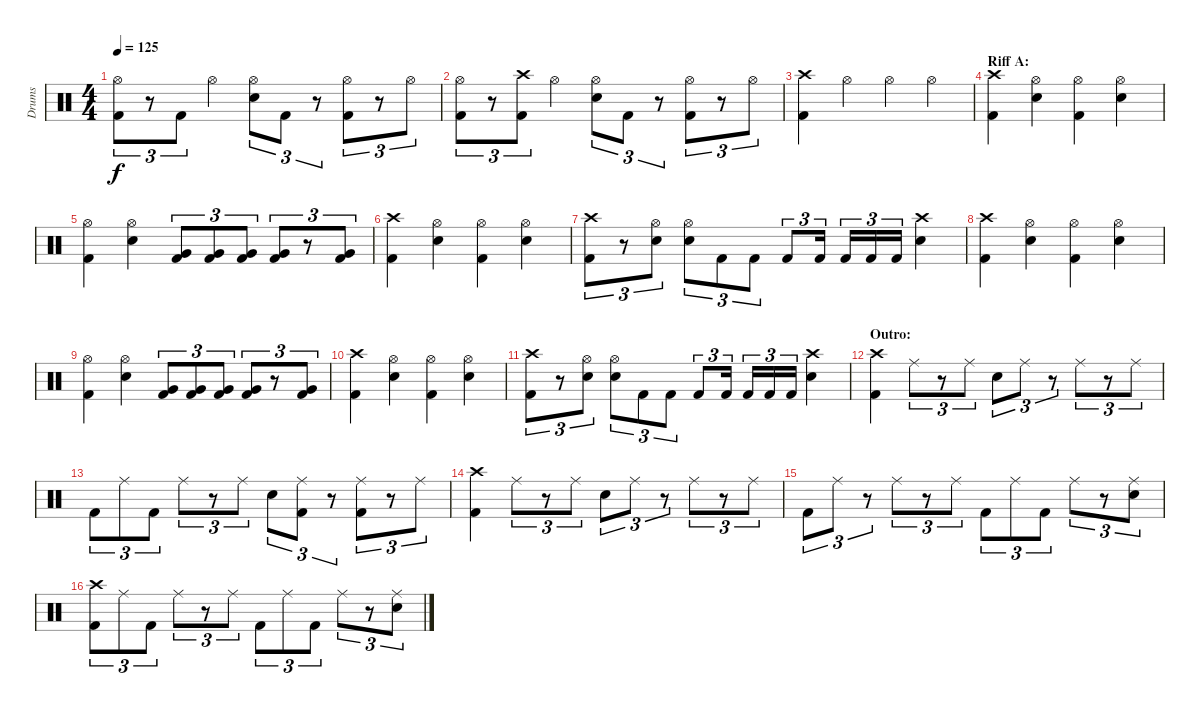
\track ("Drums" "Drums") {instrument percussion}
\staff {score}
\articulation defaults
\ts (4 4)
\tempo 125
\clef neutral
\ks c
("Hi-Hat (open)" "Kick (hit) 2").8{tu (3 2) dy f} r.8{tu (3 2)} "Kick (hit) 2".8{tu (3 2)} "Hi-Hat (open)".4 ("Hi-Hat (open)" "Electric Snare (hit)").8{tu (3 2)} "Kick (hit) 2".8{tu (3 2)} r.8{tu (3 2)} ("Hi-Hat (open)" "Kick (hit) 2").8{tu (3 2)} r.8{tu (3 2)} "Hi-Hat (open)".8{tu (3 2)} |
("Hi-Hat (open)" "Kick (hit) 2").8{tu (3 2)} r.8{tu (3 2)} ("Crash high (hit)" "Kick (hit) 2").8{tu (3 2)} "Hi-Hat (open)".4 ("Hi-Hat (open)" "Electric Snare (hit)").8{tu (3 2)} "Kick (hit) 2".8{tu (3 2)} r.8{tu (3 2)} ("Hi-Hat (open)" "Kick (hit) 2").8{tu (3 2)} r.8{tu (3 2)} "Hi-Hat (open)".8{tu (3 2)} |
("Crash high (hit)" "Kick (hit) 2").4 "Hi-Hat (open)".4 "Hi-Hat (open)".4 "Hi-Hat (open)".4 |
\section ("" "Riff A:")
("Crash high (hit)" "Kick (hit) 2").4 ("Hi-Hat (open)" "Electric Snare (hit)").4 ("Hi-Hat (open)" "Kick (hit) 2").4 ("Hi-Hat (open)" "Electric Snare (hit)").4 |
("Hi-Hat (open)" "Kick (hit) 2").4 ("Hi-Hat (open)" "Electric Snare (hit)").4 ("Very Low Tom (hit)" "Kick (hit) 2").8{tu (3 2)} ("Very Low Tom (hit)" "Kick (hit) 2").8{tu (3 2)} ("Very Low Tom (hit)" "Kick (hit) 2").8{tu (3 2)} ("Very Low Tom (hit)" "Kick (hit) 2").8{tu (3 2)} r.8{tu (3 2)} ("Very Low Tom (hit)" "Kick (hit) 2").8{tu (3 2)} |
("Crash high (hit)" "Kick (hit) 2").4 ("Hi-Hat (open)" "Electric Snare (hit)").4 ("Hi-Hat (open)" "Kick (hit) 2").4 ("Hi-Hat (open)" "Electric Snare (hit)").4 |
("Crash high (hit)" "Kick (hit) 2").8{tu (3 2)} r.8{tu (3 2)} ("Hi-Hat (open)" "Electric Snare (hit)").8{tu (3 2)} ("Hi-Hat (open)" "Electric Snare (hit)").8{tu (3 2)} "Kick (hit) 2".8{tu (3 2)} "Kick (hit) 2".8{tu (3 2)} "Kick (hit) 2".8{tu (3 2)} "Kick (hit) 2".16{tu (3 2)} "Kick (hit) 2".16{tu (3 2)} "Kick (hit) 2".16{tu (3 2)} "Kick (hit) 2".16{tu (3 2)} ("Crash high (hit)" "Electric Snare (hit)").4 |
("Crash high (hit)" "Kick (hit) 2").4 ("Hi-Hat (open)" "Electric Snare (hit)").4 ("Hi-Hat (open)" "Kick (hit) 2").4 ("Hi-Hat (open)" "Electric Snare (hit)").4 |
("Hi-Hat (open)" "Kick (hit) 2").4 ("Hi-Hat (open)" "Electric Snare (hit)").4 ("Very Low Tom (hit)" "Kick (hit) 2").8{tu (3 2)} ("Very Low Tom (hit)" "Kick (hit) 2").8{tu (3 2)} ("Very Low Tom (hit)" "Kick (hit) 2").8{tu (3 2)} ("Very Low Tom (hit)" "Kick (hit) 2").8{tu (3 2)} r.8{tu (3 2)} ("Very Low Tom (hit)" "Kick (hit) 2").8{tu (3 2)} |
("Crash high (hit)" "Kick (hit) 2").4 ("Hi-Hat (open)" "Electric Snare (hit)").4 ("Hi-Hat (open)" "Kick (hit) 2").4 ("Hi-Hat (open)" "Electric Snare (hit)").4 |
("Crash high (hit)" "Kick (hit) 2").8{tu (3 2)} r.8{tu (3 2)} ("Hi-Hat (open)" "Electric Snare (hit)").8{tu (3 2)} ("Hi-Hat (open)" "Electric Snare (hit)").8{tu (3 2)} "Kick (hit) 2".8{tu (3 2)} "Kick (hit) 2".8{tu (3 2)} "Kick (hit) 2".8{tu (3 2)} "Kick (hit) 2".16{tu (3 2)} "Kick (hit) 2".16{tu (3 2)} "Kick (hit) 2".16{tu (3 2)} "Kick (hit) 2".16{tu (3 2)} ("Crash high (hit)" "Electric Snare (hit)").4 |
\section ("" "Outro:")
("Crash high (hit)" "Kick (hit) 2").4 "Ride (middle)".8{tu (3 2)} r.8{tu (3 2)} "Ride (middle)".8{tu (3 2)} "Electric Snare (hit)".8{tu (3 2)} "Ride (middle)".8{tu (3 2)} r.8{tu (3 2)} "Ride (middle)".8{tu (3 2)} r.8{tu (3 2)} "Ride (middle)".8{tu (3 2)} |
"Kick (hit) 2".8{tu (3 2)} "Ride (middle)".8{tu (3 2)} "Kick (hit) 2".8{tu (3 2)} "Ride (middle)".8{tu (3 2)} r.8{tu (3 2)} "Ride (middle)".8{tu (3 2)} "Electric Snare (hit)".8{tu (3 2)} ("Ride (middle)" "Kick (hit) 2").8{tu (3 2)} r.8{tu (3 2)} ("Ride (middle)" "Kick (hit) 2").8{tu (3 2)} r.8{tu (3 2)} "Ride (middle)".8{tu (3 2)} |
("Crash high (hit)" "Kick (hit) 2").4 "Ride (middle)".8{tu (3 2)} r.8{tu (3 2)} "Ride (middle)".8{tu (3 2)} "Electric Snare (hit)".8{tu (3 2)} "Ride (middle)".8{tu (3 2)} r.8{tu (3 2)} "Ride (middle)".8{tu (3 2)} r.8{tu (3 2)} "Ride (middle)".8{tu (3 2)} |
"Kick (hit) 2".8{tu (3 2)} "Ride (middle)".8{tu (3 2)} r.8{tu (3 2)} "Ride (middle)".8{tu (3 2)} r.8{tu (3 2)} "Ride (middle)".8{tu (3 2)} "Kick (hit) 2".8{tu (3 2)} "Ride (middle)".8{tu (3 2)} "Kick (hit) 2".8{tu (3 2)} "Ride (middle)".8{tu (3 2)} r.8{tu (3 2)} ("Ride (middle)" "Electric Snare (hit)").8{tu (3 2)} |
("Crash high (hit)" "Kick (hit) 2").8{tu (3 2)} "Ride (middle)".8{tu (3 2)} "Kick (hit) 2".8{tu (3 2)} "Ride (middle)".8{tu (3 2)} r.8{tu (3 2)} "Ride (middle)".8{tu (3 2)} "Kick (hit) 2".8{tu (3 2)} "Ride (middle)".8{tu (3 2)} "Kick (hit) 2".8{tu (3 2)} "Ride (middle)".8{tu (3 2)} r.8{tu (3 2)} ("Ride (middle)" "Electric Snare (hit)").8{tu (3 2)}
